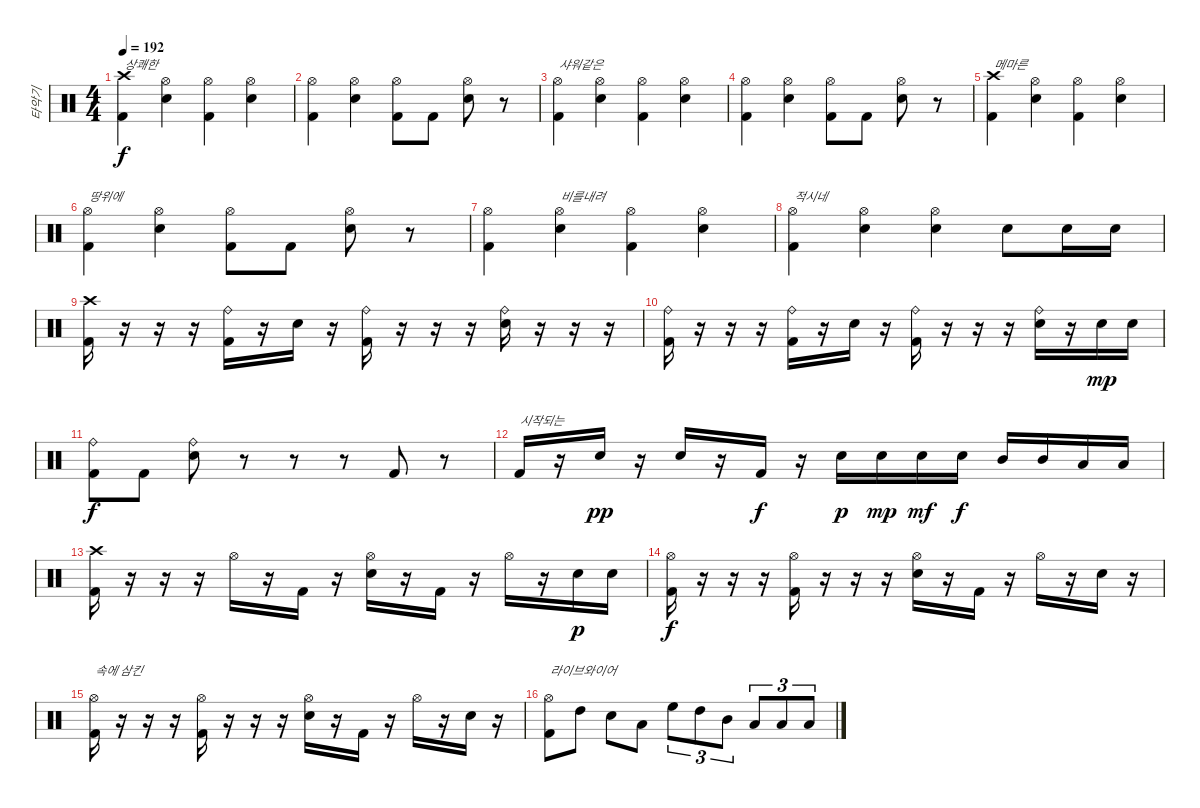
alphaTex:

\track ("타악기" "타악기") {instrument percussion}
\staff {score}
\articulation defaults
\ts (4 4)
\tempo 192
\clef neutral
\ks c
("Crash high (hit)" "Kick (hit) 2").4{txt "상쾌한" dy f} ("Hi-Hat (open)" "Snare (hit) 2").4 ("Hi-Hat (open)" "Kick (hit) 2").4 ("Hi-Hat (open)" "Snare (hit) 2").4 |
("Hi-Hat (open)" "Kick (hit) 2").4 ("Hi-Hat (open)" "Snare (hit) 2").4 ("Hi-Hat (open)" "Kick (hit) 2").8 "Kick (hit) 2".8 ("Hi-Hat (open)" "Snare (hit) 2").8 r.8 |
("Hi-Hat (open)" "Kick (hit) 2").4{txt "샤워같은"} ("Hi-Hat (open)" "Snare (hit) 2").4 ("Hi-Hat (open)" "Kick (hit) 2").4 ("Hi-Hat (open)" "Snare (hit) 2").4 |
("Hi-Hat (open)" "Kick (hit) 2").4 ("Hi-Hat (open)" "Snare (hit) 2").4 ("Hi-Hat (open)" "Kick (hit) 2").8 "Kick (hit) 2".8 ("Hi-Hat (open)" "Snare (hit) 2").8 r.8 |
("Crash high (hit)" "Kick (hit) 2").4{txt "메마른"} ("Hi-Hat (open)" "Snare (hit) 2").4 ("Hi-Hat (open)" "Kick (hit) 2").4 ("Hi-Hat (open)" "Snare (hit) 2").4 |
("Hi-Hat (open)" "Kick (hit) 2").4{txt "땅위에"} ("Hi-Hat (open)" "Snare (hit) 2").4 ("Hi-Hat (open)" "Kick (hit) 2").8 "Kick (hit) 2".8 ("Hi-Hat (open)" "Snare (hit) 2").8 r.8 |
("Hi-Hat (open)" "Kick (hit) 2").4 ("Hi-Hat (open)" "Snare (hit) 2").4{txt "비를내려"} ("Hi-Hat (open)" "Kick (hit) 2").4 ("Hi-Hat (open)" "Snare (hit) 2").4 |
("Hi-Hat (open)" "Kick (hit) 2").4{txt "적시네"} ("Hi-Hat (open)" "Snare (hit) 2").4 ("Hi-Hat (open)" "Snare (hit) 2").4 "Snare (hit) 2".8 "Snare (hit) 2".16 "Snare (hit) 2".16 |
("Crash high (hit)" "Kick (hit) 2").16 r.16 r.16 r.16 ("Ride (bell)" "Kick (hit) 2").16 r.16 "Snare (hit) 2".16 r.16 ("Ride (bell)" "Kick (hit) 2").16 r.16 r.16 r.16 ("Ride (bell)" "Snare (hit) 2").16 r.16 r.16 r.16 |
("Ride (bell)" "Kick (hit) 2").16 r.16 r.16 r.16 ("Ride (bell)" "Kick (hit) 2").16 r.16 "Snare (hit) 2".16 r.16 ("Ride (bell)" "Kick (hit) 2").16 r.16 r.16 r.16 ("Ride (bell)" "Snare (hit) 2").16 r.16 "Snare (hit) 2".16{dy mp} "Snare (hit) 2".16 |
("Ride (bell)" "Kick (hit) 2").8{dy f} "Kick (hit) 2".8 ("Ride (bell)" "Snare (hit) 2").8 r.8 r.8 r.8 "Kick (hit) 2".8 r.8 |
"Kick (hit) 2".16{txt "시작되는"} r.16 "Snare (hit) 2".16{dy pp} r.16 "Snare (hit) 2".16 r.16 "Kick (hit) 2".16{dy f} r.16 "Snare (hit) 2".16{dy p} "Snare (hit) 2".16{dy mp} "Snare (hit) 2".16{dy mf} "Snare (hit) 2".16{dy f} "Mid Tom (hit)".16 "Mid Tom (hit)".16 "Low Tom (hit)".16 "Low Tom (hit)".16 |
("Crash high (hit)" "Kick (hit) 2").16 r.16 r.16 r.16 "Hi-Hat (open)".16 r.16 "Kick (hit) 2".16 r.16 ("Hi-Hat (open)" "Snare (hit) 2").16 r.16 "Kick (hit) 2".16 r.16 "Hi-Hat (open)".16 r.16 "Snare (hit) 2".16{dy p} "Snare (hit) 2".16 |
("Hi-Hat (open)" "Kick (hit) 2").16{dy f} r.16 r.16 r.16 ("Hi-Hat (open)" "Kick (hit) 2").16 r.16 r.16 r.16 ("Hi-Hat (open)" "Snare (hit) 2").16 r.16 "Kick (hit) 2".16 r.16 "Hi-Hat (open)".16 r.16 "Snare (hit) 2".16 r.16 |
("Hi-Hat (open)" "Kick (hit) 2").16{txt "속에 삼킨"} r.16 r.16 r.16 ("Hi-Hat (open)" "Kick (hit) 2").16 r.16 r.16 r.16 ("Hi-Hat (open)" "Snare (hit) 2").16 r.16 "Kick (hit) 2".16 r.16 "Hi-Hat (open)".16 r.16 "Snare (hit) 2".16 r.16 |
("Hi-Hat (open)" "Kick (hit) 2").8{txt "라이브와이어"} "High Tom (hit)".8 "Snare (hit) 2".8 "Low Tom (hit)".8 "High Floor Tom (hit)".8{tu (3 2)} "High Tom (hit)".8{tu (3 2)} "Mid Tom (hit)".8{tu (3 2)} "Low Tom (hit)".8{tu (3 2)} "Low Tom (hit)".8{tu (3 2)} "Low Tom (hit)".8{tu (3 2)}
